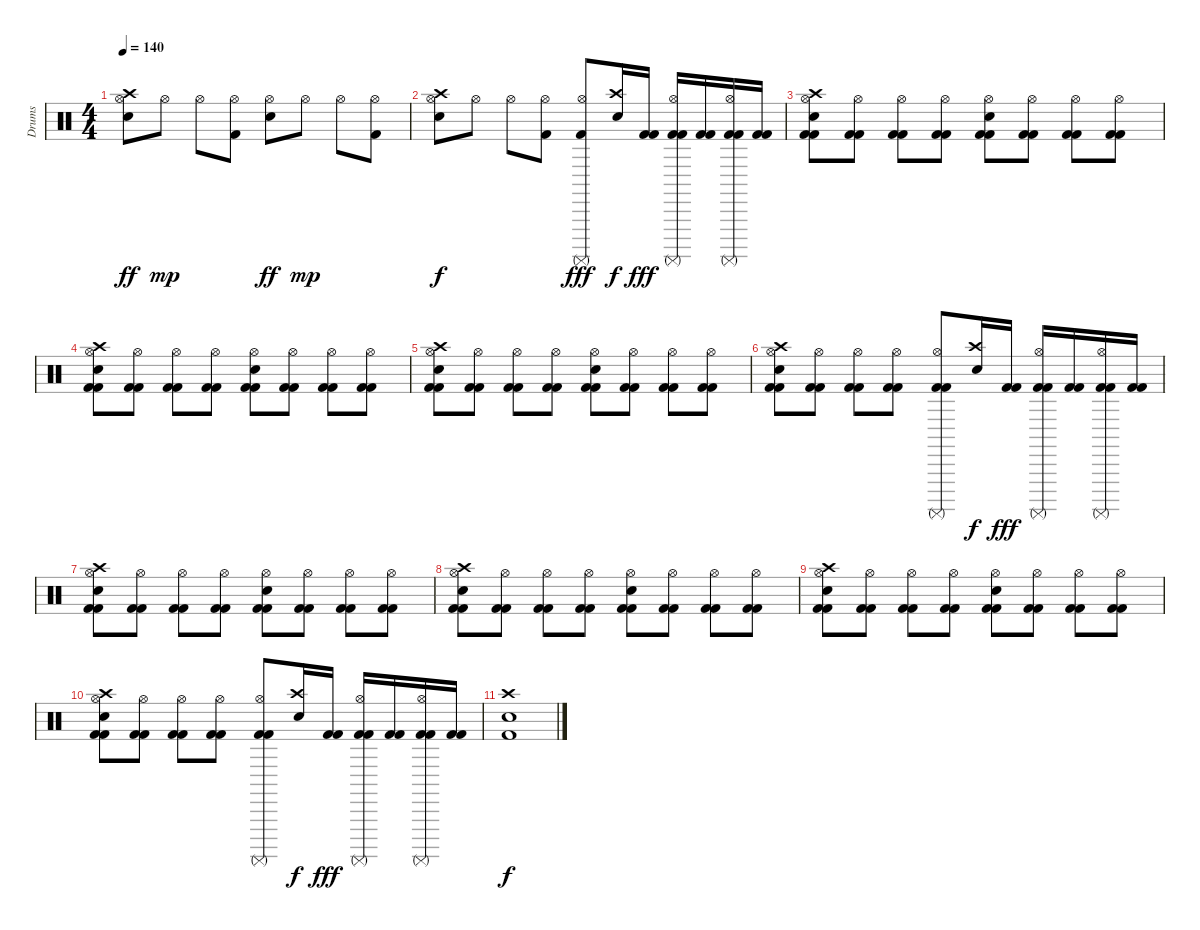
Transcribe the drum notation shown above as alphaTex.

\track ("Drums" "Drums") {instrument percussion}
\staff {score}
\articulation defaults
\ts (4 4)
\tempo 140
\clef neutral
\ks c
("Hi-Hat (open)" "Crash high (hit)" "Snare (hit) 2").8{dy ff} "Hi-Hat (open)".8{dy mp} "Hi-Hat (open)".8 ("Hi-Hat (open)" "Kick (hit) 2").8 ("Hi-Hat (open)" "Snare (hit) 2").8{dy ff} "Hi-Hat (open)".8{dy mp} "Hi-Hat (open)".8 ("Hi-Hat (open)" "Kick (hit) 2").8 |
("Hi-Hat (open)" "Crash high (hit)" "Snare (hit) 2").8{dy f} "Hi-Hat (open)".8 "Hi-Hat (open)".8 ("Hi-Hat (open)" "Kick (hit) 2").8 ("Hi-Hat (open)" "Surdo (mute)" "Kick (hit) 2").8{dy fff} ("Crash high (hit)" "Snare (hit) 2").16{dy f} ("Kick (hit) 2" "Kick (hit) 2").16{dy fff} ("Hi-Hat (open)" "Surdo (mute)" "Kick (hit) 2" "Kick (hit) 2").16 ("Kick (hit) 2" "Kick (hit) 2").16 ("Hi-Hat (open)" "Surdo (mute)" "Kick (hit) 2" "Kick (hit) 2").16 ("Kick (hit) 2" "Kick (hit) 2").16 |
("Hi-Hat (open)" "Crash high (hit)" "Snare (hit) 2" "Kick (hit) 2" "Kick (hit) 2").8 ("Hi-Hat (open)" "Kick (hit) 2" "Kick (hit) 2").8 ("Hi-Hat (open)" "Kick (hit) 2" "Kick (hit) 2").8 ("Hi-Hat (open)" "Kick (hit) 2" "Kick (hit) 2").8 ("Hi-Hat (open)" "Snare (hit) 2" "Kick (hit) 2" "Kick (hit) 2").8 ("Hi-Hat (open)" "Kick (hit) 2" "Kick (hit) 2").8 ("Hi-Hat (open)" "Kick (hit) 2" "Kick (hit) 2").8 ("Hi-Hat (open)" "Kick (hit) 2" "Kick (hit) 2").8 |
("Hi-Hat (open)" "Crash high (hit)" "Snare (hit) 2" "Kick (hit) 2" "Kick (hit) 2").8 ("Hi-Hat (open)" "Kick (hit) 2" "Kick (hit) 2").8 ("Hi-Hat (open)" "Kick (hit) 2" "Kick (hit) 2").8 ("Hi-Hat (open)" "Kick (hit) 2" "Kick (hit) 2").8 ("Hi-Hat (open)" "Snare (hit) 2" "Kick (hit) 2" "Kick (hit) 2").8 ("Hi-Hat (open)" "Kick (hit) 2" "Kick (hit) 2").8 ("Hi-Hat (open)" "Kick (hit) 2" "Kick (hit) 2").8 ("Hi-Hat (open)" "Kick (hit) 2" "Kick (hit) 2").8 |
("Hi-Hat (open)" "Crash high (hit)" "Snare (hit) 2" "Kick (hit) 2" "Kick (hit) 2").8 ("Hi-Hat (open)" "Kick (hit) 2" "Kick (hit) 2").8 ("Hi-Hat (open)" "Kick (hit) 2" "Kick (hit) 2").8 ("Hi-Hat (open)" "Kick (hit) 2" "Kick (hit) 2").8 ("Hi-Hat (open)" "Snare (hit) 2" "Kick (hit) 2" "Kick (hit) 2").8 ("Hi-Hat (open)" "Kick (hit) 2" "Kick (hit) 2").8 ("Hi-Hat (open)" "Kick (hit) 2" "Kick (hit) 2").8 ("Hi-Hat (open)" "Kick (hit) 2" "Kick (hit) 2").8 |
("Hi-Hat (open)" "Crash high (hit)" "Snare (hit) 2" "Kick (hit) 2" "Kick (hit) 2").8 ("Hi-Hat (open)" "Kick (hit) 2" "Kick (hit) 2").8 ("Hi-Hat (open)" "Kick (hit) 2" "Kick (hit) 2").8 ("Hi-Hat (open)" "Kick (hit) 2" "Kick (hit) 2").8 ("Hi-Hat (open)" "Surdo (mute)" "Kick (hit) 2" "Kick (hit) 2").8 ("Crash high (hit)" "Snare (hit) 2").16{dy f} ("Kick (hit) 2" "Kick (hit) 2").16{dy fff} ("Hi-Hat (open)" "Surdo (mute)" "Kick (hit) 2" "Kick (hit) 2").16 ("Kick (hit) 2" "Kick (hit) 2").16 ("Hi-Hat (open)" "Surdo (mute)" "Kick (hit) 2" "Kick (hit) 2").16 ("Kick (hit) 2" "Kick (hit) 2").16 |
("Hi-Hat (open)" "Crash high (hit)" "Snare (hit) 2" "Kick (hit) 2" "Kick (hit) 2").8 ("Hi-Hat (open)" "Kick (hit) 2" "Kick (hit) 2").8 ("Hi-Hat (open)" "Kick (hit) 2" "Kick (hit) 2").8 ("Hi-Hat (open)" "Kick (hit) 2" "Kick (hit) 2").8 ("Hi-Hat (open)" "Snare (hit) 2" "Kick (hit) 2" "Kick (hit) 2").8 ("Hi-Hat (open)" "Kick (hit) 2" "Kick (hit) 2").8 ("Hi-Hat (open)" "Kick (hit) 2" "Kick (hit) 2").8 ("Hi-Hat (open)" "Kick (hit) 2" "Kick (hit) 2").8 |
("Hi-Hat (open)" "Crash high (hit)" "Snare (hit) 2" "Kick (hit) 2" "Kick (hit) 2").8 ("Hi-Hat (open)" "Kick (hit) 2" "Kick (hit) 2").8 ("Hi-Hat (open)" "Kick (hit) 2" "Kick (hit) 2").8 ("Hi-Hat (open)" "Kick (hit) 2" "Kick (hit) 2").8 ("Hi-Hat (open)" "Snare (hit) 2" "Kick (hit) 2" "Kick (hit) 2").8 ("Hi-Hat (open)" "Kick (hit) 2" "Kick (hit) 2").8 ("Hi-Hat (open)" "Kick (hit) 2" "Kick (hit) 2").8 ("Hi-Hat (open)" "Kick (hit) 2" "Kick (hit) 2").8 |
("Hi-Hat (open)" "Crash high (hit)" "Snare (hit) 2" "Kick (hit) 2" "Kick (hit) 2").8 ("Hi-Hat (open)" "Kick (hit) 2" "Kick (hit) 2").8 ("Hi-Hat (open)" "Kick (hit) 2" "Kick (hit) 2").8 ("Hi-Hat (open)" "Kick (hit) 2" "Kick (hit) 2").8 ("Hi-Hat (open)" "Snare (hit) 2" "Kick (hit) 2" "Kick (hit) 2").8 ("Hi-Hat (open)" "Kick (hit) 2" "Kick (hit) 2").8 ("Hi-Hat (open)" "Kick (hit) 2" "Kick (hit) 2").8 ("Hi-Hat (open)" "Kick (hit) 2" "Kick (hit) 2").8 |
("Hi-Hat (open)" "Crash high (hit)" "Snare (hit) 2" "Kick (hit) 2" "Kick (hit) 2").8 ("Hi-Hat (open)" "Kick (hit) 2" "Kick (hit) 2").8 ("Hi-Hat (open)" "Kick (hit) 2" "Kick (hit) 2").8 ("Hi-Hat (open)" "Kick (hit) 2" "Kick (hit) 2").8 ("Hi-Hat (open)" "Surdo (mute)" "Kick (hit) 2" "Kick (hit) 2").8 ("Crash high (hit)" "Snare (hit) 2").16{dy f} ("Kick (hit) 2" "Kick (hit) 2").16{dy fff} ("Hi-Hat (open)" "Surdo (mute)" "Kick (hit) 2" "Kick (hit) 2").16 ("Kick (hit) 2" "Kick (hit) 2").16 ("Hi-Hat (open)" "Surdo (mute)" "Kick (hit) 2" "Kick (hit) 2").16 ("Kick (hit) 2" "Kick (hit) 2").16 |
("Crash high (hit)" "Snare (hit) 2" "Kick (hit) 2").1{dy f}
